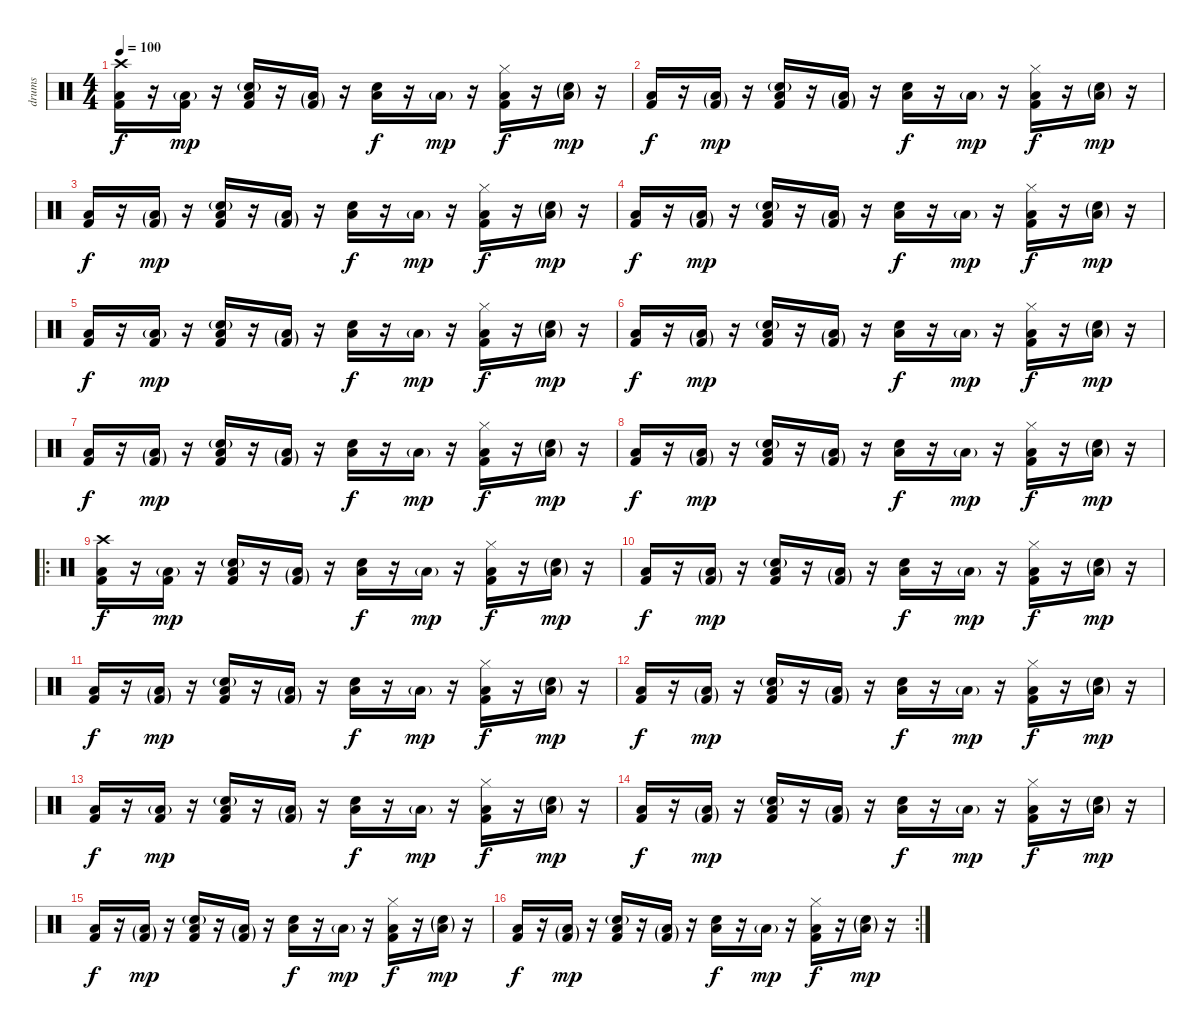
\track ("drums" "drums") {instrument percussion}
\staff {score}
\articulation defaults
\ts (4 4)
\tempo 100
\clef neutral
\ks c
("Crash high (hit)" "Low Floor Tom (hit)" "Kick (hit) 2").16{dy f} r.16 ("Low Floor Tom (hit)"{g} "Kick (hit) 2").16{dy mp} r.16 ("Low Floor Tom (hit)" "Snare (hit) 2"{g} "Kick (hit) 2").16 r.16 ("Low Floor Tom (hit)"{g} "Kick (hit) 2"{g}).16 r.16 ("Low Floor Tom (hit)" "Snare (hit) 2").16{dy f} r.16 "Low Floor Tom (hit)"{g}.16{dy mp} r.16 ("Low Floor Tom (hit)" "Hi-Hat (closed)" "Kick (hit) 2").16{dy f} r.16 ("Low Floor Tom (hit)"{g} "Snare (hit) 2"{g}).16{dy mp} r.16 |
("Low Floor Tom (hit)" "Kick (hit) 2").16{dy f} r.16 ("Low Floor Tom (hit)"{g} "Kick (hit) 2"{g}).16{dy mp} r.16 ("Low Floor Tom (hit)" "Snare (hit) 2"{g} "Kick (hit) 2").16 r.16 ("Low Floor Tom (hit)"{g} "Kick (hit) 2"{g}).16 r.16 ("Low Floor Tom (hit)" "Snare (hit) 2").16{dy f} r.16 "Low Floor Tom (hit)"{g}.16{dy mp} r.16 ("Low Floor Tom (hit)" "Hi-Hat (closed)" "Kick (hit) 2").16{dy f} r.16 ("Low Floor Tom (hit)"{g} "Snare (hit) 2"{g}).16{dy mp} r.16 |
("Low Floor Tom (hit)" "Kick (hit) 2").16{dy f} r.16 ("Low Floor Tom (hit)"{g} "Kick (hit) 2"{g}).16{dy mp} r.16 ("Low Floor Tom (hit)" "Snare (hit) 2"{g} "Kick (hit) 2").16 r.16 ("Low Floor Tom (hit)"{g} "Kick (hit) 2"{g}).16 r.16 ("Low Floor Tom (hit)" "Snare (hit) 2").16{dy f} r.16 "Low Floor Tom (hit)"{g}.16{dy mp} r.16 ("Low Floor Tom (hit)" "Hi-Hat (closed)" "Kick (hit) 2").16{dy f} r.16 ("Low Floor Tom (hit)"{g} "Snare (hit) 2"{g}).16{dy mp} r.16 |
("Low Floor Tom (hit)" "Kick (hit) 2").16{dy f} r.16 ("Low Floor Tom (hit)"{g} "Kick (hit) 2"{g}).16{dy mp} r.16 ("Low Floor Tom (hit)" "Snare (hit) 2"{g} "Kick (hit) 2").16 r.16 ("Low Floor Tom (hit)"{g} "Kick (hit) 2"{g}).16 r.16 ("Low Floor Tom (hit)" "Snare (hit) 2").16{dy f} r.16 "Low Floor Tom (hit)"{g}.16{dy mp} r.16 ("Low Floor Tom (hit)" "Hi-Hat (closed)" "Kick (hit) 2").16{dy f} r.16 ("Low Floor Tom (hit)"{g} "Snare (hit) 2"{g}).16{dy mp} r.16 |
("Low Floor Tom (hit)" "Kick (hit) 2").16{dy f} r.16 ("Low Floor Tom (hit)"{g} "Kick (hit) 2").16{dy mp} r.16 ("Low Floor Tom (hit)" "Snare (hit) 2"{g} "Kick (hit) 2").16 r.16 ("Low Floor Tom (hit)"{g} "Kick (hit) 2"{g}).16 r.16 ("Low Floor Tom (hit)" "Snare (hit) 2").16{dy f} r.16 "Low Floor Tom (hit)"{g}.16{dy mp} r.16 ("Low Floor Tom (hit)" "Hi-Hat (closed)" "Kick (hit) 2").16{dy f} r.16 ("Low Floor Tom (hit)"{g} "Snare (hit) 2"{g}).16{dy mp} r.16 |
("Low Floor Tom (hit)" "Kick (hit) 2").16{dy f} r.16 ("Low Floor Tom (hit)"{g} "Kick (hit) 2"{g}).16{dy mp} r.16 ("Low Floor Tom (hit)" "Snare (hit) 2"{g} "Kick (hit) 2").16 r.16 ("Low Floor Tom (hit)"{g} "Kick (hit) 2"{g}).16 r.16 ("Low Floor Tom (hit)" "Snare (hit) 2").16{dy f} r.16 "Low Floor Tom (hit)"{g}.16{dy mp} r.16 ("Low Floor Tom (hit)" "Hi-Hat (closed)" "Kick (hit) 2").16{dy f} r.16 ("Low Floor Tom (hit)"{g} "Snare (hit) 2"{g}).16{dy mp} r.16 |
("Low Floor Tom (hit)" "Kick (hit) 2").16{dy f} r.16 ("Low Floor Tom (hit)"{g} "Kick (hit) 2"{g}).16{dy mp} r.16 ("Low Floor Tom (hit)" "Snare (hit) 2"{g} "Kick (hit) 2").16 r.16 ("Low Floor Tom (hit)"{g} "Kick (hit) 2"{g}).16 r.16 ("Low Floor Tom (hit)" "Snare (hit) 2").16{dy f} r.16 "Low Floor Tom (hit)"{g}.16{dy mp} r.16 ("Low Floor Tom (hit)" "Hi-Hat (closed)" "Kick (hit) 2").16{dy f} r.16 ("Low Floor Tom (hit)"{g} "Snare (hit) 2"{g}).16{dy mp} r.16 |
("Low Floor Tom (hit)" "Kick (hit) 2").16{dy f} r.16 ("Low Floor Tom (hit)"{g} "Kick (hit) 2"{g}).16{dy mp} r.16 ("Low Floor Tom (hit)" "Snare (hit) 2"{g} "Kick (hit) 2").16 r.16 ("Low Floor Tom (hit)"{g} "Kick (hit) 2"{g}).16 r.16 ("Low Floor Tom (hit)" "Snare (hit) 2").16{dy f} r.16 "Low Floor Tom (hit)"{g}.16{dy mp} r.16 ("Low Floor Tom (hit)" "Hi-Hat (closed)" "Kick (hit) 2").16{dy f} r.16 ("Low Floor Tom (hit)"{g} "Snare (hit) 2"{g}).16{dy mp} r.16 |
\ro
("Crash high (hit)" "Low Floor Tom (hit)" "Kick (hit) 2").16{dy f} r.16 ("Low Floor Tom (hit)"{g} "Kick (hit) 2").16{dy mp} r.16 ("Low Floor Tom (hit)" "Snare (hit) 2"{g} "Kick (hit) 2").16 r.16 ("Low Floor Tom (hit)"{g} "Kick (hit) 2"{g}).16 r.16 ("Low Floor Tom (hit)" "Snare (hit) 2").16{dy f} r.16 "Low Floor Tom (hit)"{g}.16{dy mp} r.16 ("Low Floor Tom (hit)" "Hi-Hat (closed)" "Kick (hit) 2").16{dy f} r.16 ("Low Floor Tom (hit)"{g} "Snare (hit) 2"{g}).16{dy mp} r.16 |
("Low Floor Tom (hit)" "Kick (hit) 2").16{dy f} r.16 ("Low Floor Tom (hit)"{g} "Kick (hit) 2"{g}).16{dy mp} r.16 ("Low Floor Tom (hit)" "Snare (hit) 2"{g} "Kick (hit) 2").16 r.16 ("Low Floor Tom (hit)"{g} "Kick (hit) 2"{g}).16 r.16 ("Low Floor Tom (hit)" "Snare (hit) 2").16{dy f} r.16 "Low Floor Tom (hit)"{g}.16{dy mp} r.16 ("Low Floor Tom (hit)" "Hi-Hat (closed)" "Kick (hit) 2").16{dy f} r.16 ("Low Floor Tom (hit)"{g} "Snare (hit) 2"{g}).16{dy mp} r.16 |
("Low Floor Tom (hit)" "Kick (hit) 2").16{dy f} r.16 ("Low Floor Tom (hit)"{g} "Kick (hit) 2"{g}).16{dy mp} r.16 ("Low Floor Tom (hit)" "Snare (hit) 2"{g} "Kick (hit) 2").16 r.16 ("Low Floor Tom (hit)"{g} "Kick (hit) 2"{g}).16 r.16 ("Low Floor Tom (hit)" "Snare (hit) 2").16{dy f} r.16 "Low Floor Tom (hit)"{g}.16{dy mp} r.16 ("Low Floor Tom (hit)" "Hi-Hat (closed)" "Kick (hit) 2").16{dy f} r.16 ("Low Floor Tom (hit)"{g} "Snare (hit) 2"{g}).16{dy mp} r.16 |
("Low Floor Tom (hit)" "Kick (hit) 2").16{dy f} r.16 ("Low Floor Tom (hit)"{g} "Kick (hit) 2"{g}).16{dy mp} r.16 ("Low Floor Tom (hit)" "Snare (hit) 2"{g} "Kick (hit) 2").16 r.16 ("Low Floor Tom (hit)"{g} "Kick (hit) 2"{g}).16 r.16 ("Low Floor Tom (hit)" "Snare (hit) 2").16{dy f} r.16 "Low Floor Tom (hit)"{g}.16{dy mp} r.16 ("Low Floor Tom (hit)" "Hi-Hat (closed)" "Kick (hit) 2").16{dy f} r.16 ("Low Floor Tom (hit)"{g} "Snare (hit) 2"{g}).16{dy mp} r.16 |
("Low Floor Tom (hit)" "Kick (hit) 2").16{dy f} r.16 ("Low Floor Tom (hit)"{g} "Kick (hit) 2").16{dy mp} r.16 ("Low Floor Tom (hit)" "Snare (hit) 2"{g} "Kick (hit) 2").16 r.16 ("Low Floor Tom (hit)"{g} "Kick (hit) 2"{g}).16 r.16 ("Low Floor Tom (hit)" "Snare (hit) 2").16{dy f} r.16 "Low Floor Tom (hit)"{g}.16{dy mp} r.16 ("Low Floor Tom (hit)" "Hi-Hat (closed)" "Kick (hit) 2").16{dy f} r.16 ("Low Floor Tom (hit)"{g} "Snare (hit) 2"{g}).16{dy mp} r.16 |
("Low Floor Tom (hit)" "Kick (hit) 2").16{dy f} r.16 ("Low Floor Tom (hit)"{g} "Kick (hit) 2"{g}).16{dy mp} r.16 ("Low Floor Tom (hit)" "Snare (hit) 2"{g} "Kick (hit) 2").16 r.16 ("Low Floor Tom (hit)"{g} "Kick (hit) 2"{g}).16 r.16 ("Low Floor Tom (hit)" "Snare (hit) 2").16{dy f} r.16 "Low Floor Tom (hit)"{g}.16{dy mp} r.16 ("Low Floor Tom (hit)" "Hi-Hat (closed)" "Kick (hit) 2").16{dy f} r.16 ("Low Floor Tom (hit)"{g} "Snare (hit) 2"{g}).16{dy mp} r.16 |
("Low Floor Tom (hit)" "Kick (hit) 2").16{dy f} r.16 ("Low Floor Tom (hit)"{g} "Kick (hit) 2"{g}).16{dy mp} r.16 ("Low Floor Tom (hit)" "Snare (hit) 2"{g} "Kick (hit) 2").16 r.16 ("Low Floor Tom (hit)"{g} "Kick (hit) 2"{g}).16 r.16 ("Low Floor Tom (hit)" "Snare (hit) 2").16{dy f} r.16 "Low Floor Tom (hit)"{g}.16{dy mp} r.16 ("Low Floor Tom (hit)" "Hi-Hat (closed)" "Kick (hit) 2").16{dy f} r.16 ("Low Floor Tom (hit)"{g} "Snare (hit) 2"{g}).16{dy mp} r.16 |
\rc 2
("Low Floor Tom (hit)" "Kick (hit) 2").16{dy f} r.16 ("Low Floor Tom (hit)"{g} "Kick (hit) 2"{g}).16{dy mp} r.16 ("Low Floor Tom (hit)" "Snare (hit) 2"{g} "Kick (hit) 2").16 r.16 ("Low Floor Tom (hit)"{g} "Kick (hit) 2"{g}).16 r.16 ("Low Floor Tom (hit)" "Snare (hit) 2").16{dy f} r.16 "Low Floor Tom (hit)"{g}.16{dy mp} r.16 ("Low Floor Tom (hit)" "Hi-Hat (closed)" "Kick (hit) 2").16{dy f} r.16 ("Low Floor Tom (hit)"{g} "Snare (hit) 2"{g}).16{dy mp} r.16
